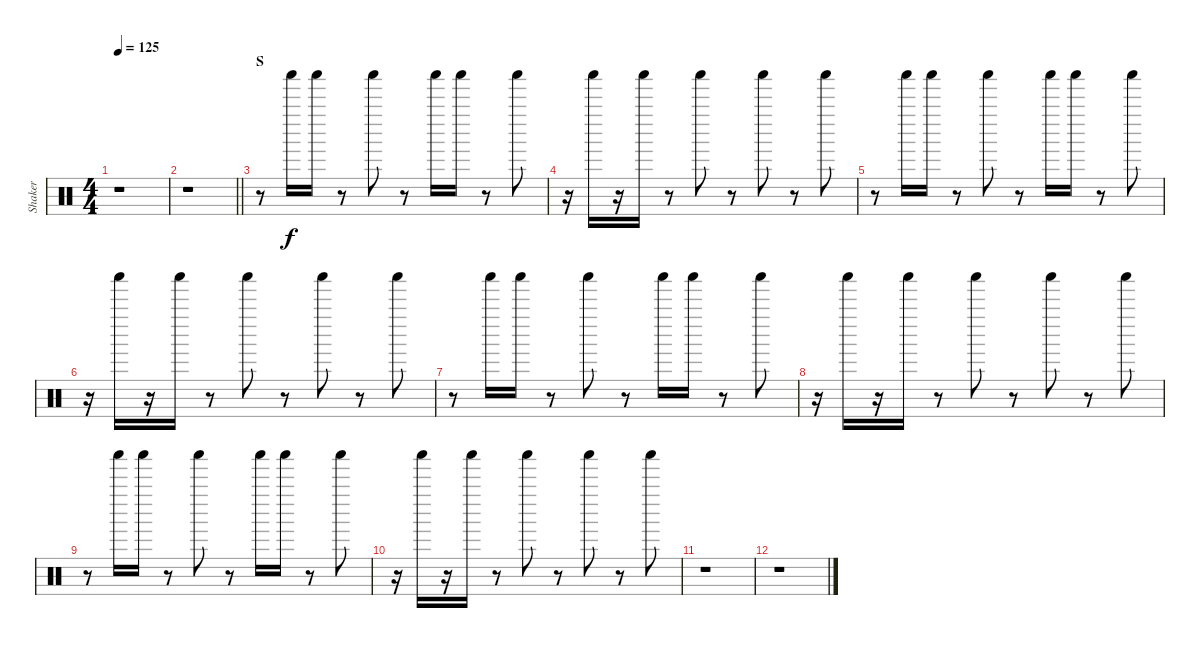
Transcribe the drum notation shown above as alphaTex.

\track ("Shaker" "Shaker") {instrument percussion}
\staff {score}
\articulation defaults
\ts (4 4)
\tempo 125
\clef neutral
\ks c
r.1{dy f} |
\barLineRight lightlight
r.1 |
\section ("" "S")
r.8 "Shaker (hit)".16 "Shaker (hit)".16 r.8 "Shaker (hit)".8 r.8 "Shaker (hit)".16 "Shaker (hit)".16 r.8 "Shaker (hit)".8 |
r.16 "Shaker (hit)".16 r.16 "Shaker (hit)".16 r.8 "Shaker (hit)".8 r.8 "Shaker (hit)".8 r.8 "Shaker (hit)".8 |
r.8 "Shaker (hit)".16 "Shaker (hit)".16 r.8 "Shaker (hit)".8 r.8 "Shaker (hit)".16 "Shaker (hit)".16 r.8 "Shaker (hit)".8 |
r.16 "Shaker (hit)".16 r.16 "Shaker (hit)".16 r.8 "Shaker (hit)".8 r.8 "Shaker (hit)".8 r.8 "Shaker (hit)".8 |
r.8 "Shaker (hit)".16 "Shaker (hit)".16 r.8 "Shaker (hit)".8 r.8 "Shaker (hit)".16 "Shaker (hit)".16 r.8 "Shaker (hit)".8 |
r.16 "Shaker (hit)".16 r.16 "Shaker (hit)".16 r.8 "Shaker (hit)".8 r.8 "Shaker (hit)".8 r.8 "Shaker (hit)".8 |
r.8 "Shaker (hit)".16 "Shaker (hit)".16 r.8 "Shaker (hit)".8 r.8 "Shaker (hit)".16 "Shaker (hit)".16 r.8 "Shaker (hit)".8 |
r.16 "Shaker (hit)".16 r.16 "Shaker (hit)".16 r.8 "Shaker (hit)".8 r.8 "Shaker (hit)".8 r.8 "Shaker (hit)".8 |
r.1 |
r.1
